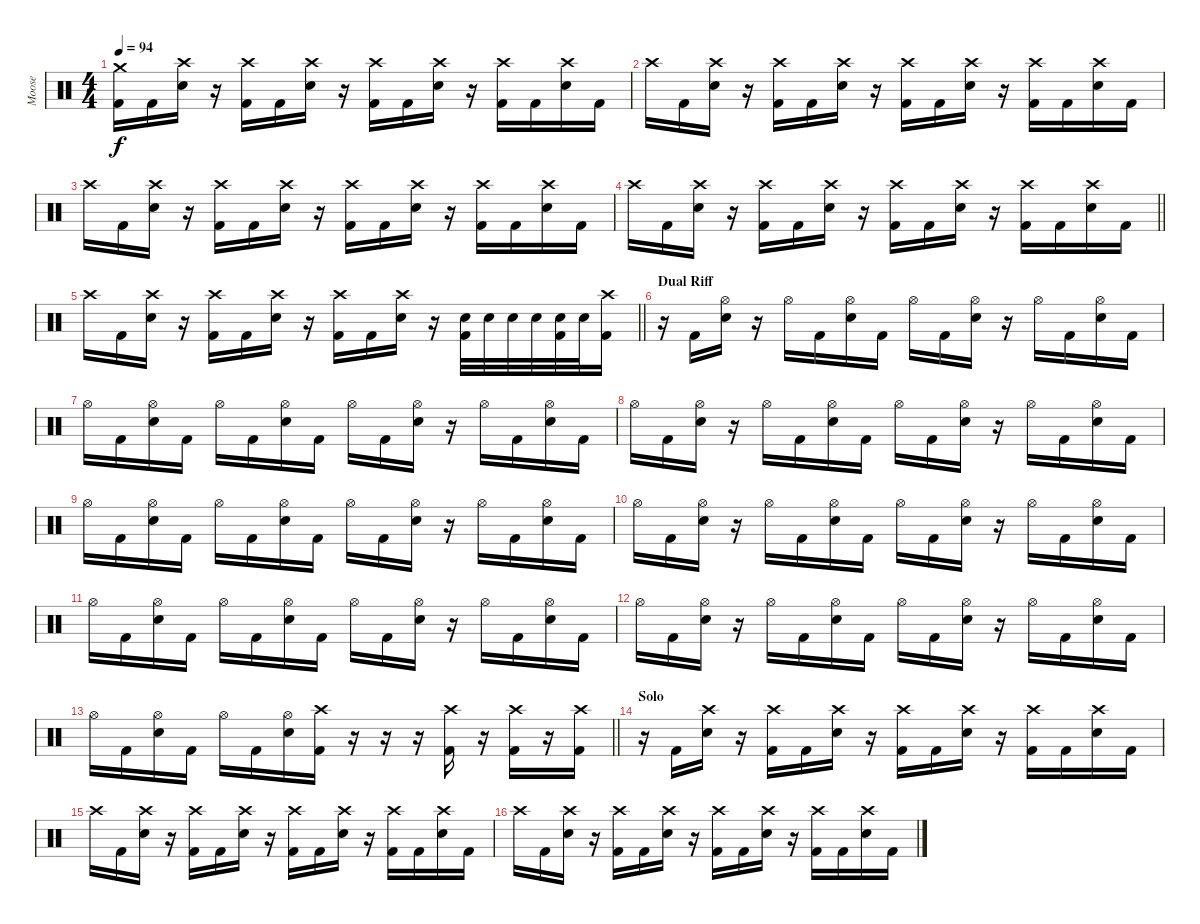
\track ("Moose" "Moose") {instrument percussion}
\staff {score}
\articulation defaults
\ts (4 4)
\tempo 94
\clef neutral
\ks c
("Crash medium (hit)" "Kick (hit) 2").16{dy f} "Kick (hit) 2".16 ("Crash high (hit)" "Electric Snare (hit)").16 r.16 ("Crash high (hit)" "Kick (hit) 2").16 "Kick (hit) 2".16 ("Crash high (hit)" "Electric Snare (hit)").16 r.16 ("Crash high (hit)" "Kick (hit) 2").16 "Kick (hit) 2".16 ("Crash high (hit)" "Electric Snare (hit)").16 r.16 ("Crash high (hit)" "Kick (hit) 2").16 "Kick (hit) 2".16 ("Crash high (hit)" "Electric Snare (hit)").16 "Kick (hit) 2".16 |
"Crash high (hit)".16 "Kick (hit) 2".16 ("Crash high (hit)" "Electric Snare (hit)").16 r.16 ("Crash high (hit)" "Kick (hit) 2").16 "Kick (hit) 2".16 ("Crash high (hit)" "Electric Snare (hit)").16 r.16 ("Crash high (hit)" "Kick (hit) 2").16 "Kick (hit) 2".16 ("Crash high (hit)" "Electric Snare (hit)").16 r.16 ("Crash high (hit)" "Kick (hit) 2").16 "Kick (hit) 2".16 ("Crash high (hit)" "Electric Snare (hit)").16 "Kick (hit) 2".16 |
"Crash high (hit)".16 "Kick (hit) 2".16 ("Crash high (hit)" "Electric Snare (hit)").16 r.16 ("Crash high (hit)" "Kick (hit) 2").16 "Kick (hit) 2".16 ("Crash high (hit)" "Electric Snare (hit)").16 r.16 ("Crash high (hit)" "Kick (hit) 2").16 "Kick (hit) 2".16 ("Crash high (hit)" "Electric Snare (hit)").16 r.16 ("Crash high (hit)" "Kick (hit) 2").16 "Kick (hit) 2".16 ("Crash high (hit)" "Electric Snare (hit)").16 "Kick (hit) 2".16 |
\barLineRight lightlight "Crash high (hit)".16 "Kick (hit) 2".16
("Crash high (hit)" "Electric Snare (hit)").16 r.16 ("Crash high (hit)" "Kick (hit) 2").16 "Kick (hit) 2".16 ("Crash high (hit)" "Electric Snare (hit)").16 r.16 ("Crash high (hit)" "Kick (hit) 2").16 "Kick (hit) 2".16 ("Crash high (hit)" "Electric Snare (hit)").16 r.16 ("Crash high (hit)" "Kick (hit) 2").16 "Kick (hit) 2".16 ("Crash high (hit)" "Electric Snare (hit)").16 "Kick (hit) 2".16 |
\barLineRight lightlight "Crash high (hit)".16 "Kick (hit) 2".16
("Crash high (hit)" "Electric Snare (hit)").16 r.16 ("Crash high (hit)" "Kick (hit) 2").16 "Kick (hit) 2".16 ("Crash high (hit)" "Electric Snare (hit)").16 r.16 ("Crash high (hit)" "Kick (hit) 2").16 "Kick (hit) 2".16 ("Crash high (hit)" "Electric Snare (hit)").16 r.16 ("Electric Snare (hit)" "Kick (hit) 2").32 "Electric Snare (hit)".32 "Electric Snare (hit)".32 "Electric Snare (hit)".32 ("Electric Snare (hit)" "Kick (hit) 2").32 "Electric Snare (hit)".32 ("Crash high (hit)" "Kick (hit) 2").16 |
\section ("" "Dual Riff")
r.16 "Kick (hit) 2".16 ("Hi-Hat (open)" "Electric Snare (hit)").16 r.16 "Hi-Hat (open)".16 "Kick (hit) 2".16 ("Hi-Hat (open)" "Electric Snare (hit)").16 "Kick (hit) 2".16 "Hi-Hat (open)".16 "Kick (hit) 2".16 ("Hi-Hat (open)" "Electric Snare (hit)").16 r.16 "Hi-Hat (open)".16 "Kick (hit) 2".16 ("Hi-Hat (open)" "Electric Snare (hit)").16 "Kick (hit) 2".16 |
"Hi-Hat (open)".16 "Kick (hit) 2".16 ("Hi-Hat (open)" "Electric Snare (hit)").16 "Kick (hit) 2".16 "Hi-Hat (open)".16 "Kick (hit) 2".16 ("Hi-Hat (open)" "Electric Snare (hit)").16 "Kick (hit) 2".16 "Hi-Hat (open)".16 "Kick (hit) 2".16 ("Hi-Hat (open)" "Electric Snare (hit)").16 r.16 "Hi-Hat (open)".16 "Kick (hit) 2".16 ("Hi-Hat (open)" "Electric Snare (hit)").16 "Kick (hit) 2".16 |
"Hi-Hat (open)".16 "Kick (hit) 2".16 ("Hi-Hat (open)" "Electric Snare (hit)").16 r.16 "Hi-Hat (open)".16 "Kick (hit) 2".16 ("Hi-Hat (open)" "Electric Snare (hit)").16 "Kick (hit) 2".16 "Hi-Hat (open)".16 "Kick (hit) 2".16 ("Hi-Hat (open)" "Electric Snare (hit)").16 r.16 "Hi-Hat (open)".16 "Kick (hit) 2".16 ("Hi-Hat (open)" "Electric Snare (hit)").16 "Kick (hit) 2".16 |
"Hi-Hat (open)".16 "Kick (hit) 2".16 ("Hi-Hat (open)" "Electric Snare (hit)").16 "Kick (hit) 2".16 "Hi-Hat (open)".16 "Kick (hit) 2".16 ("Hi-Hat (open)" "Electric Snare (hit)").16 "Kick (hit) 2".16 "Hi-Hat (open)".16 "Kick (hit) 2".16 ("Hi-Hat (open)" "Electric Snare (hit)").16 r.16 "Hi-Hat (open)".16 "Kick (hit) 2".16 ("Hi-Hat (open)" "Electric Snare (hit)").16 "Kick (hit) 2".16 |
"Hi-Hat (open)".16 "Kick (hit) 2".16 ("Hi-Hat (open)" "Electric Snare (hit)").16 r.16 "Hi-Hat (open)".16 "Kick (hit) 2".16 ("Hi-Hat (open)" "Electric Snare (hit)").16 "Kick (hit) 2".16 "Hi-Hat (open)".16 "Kick (hit) 2".16 ("Hi-Hat (open)" "Electric Snare (hit)").16 r.16 "Hi-Hat (open)".16 "Kick (hit) 2".16 ("Hi-Hat (open)" "Electric Snare (hit)").16 "Kick (hit) 2".16 |
"Hi-Hat (open)".16 "Kick (hit) 2".16 ("Hi-Hat (open)" "Electric Snare (hit)").16 "Kick (hit) 2".16 "Hi-Hat (open)".16 "Kick (hit) 2".16 ("Hi-Hat (open)" "Electric Snare (hit)").16 "Kick (hit) 2".16 "Hi-Hat (open)".16 "Kick (hit) 2".16 ("Hi-Hat (open)" "Electric Snare (hit)").16 r.16 "Hi-Hat (open)".16 "Kick (hit) 2".16 ("Hi-Hat (open)" "Electric Snare (hit)").16 "Kick (hit) 2".16 |
"Hi-Hat (open)".16 "Kick (hit) 2".16 ("Hi-Hat (open)" "Electric Snare (hit)").16 r.16 "Hi-Hat (open)".16 "Kick (hit) 2".16 ("Hi-Hat (open)" "Electric Snare (hit)").16 "Kick (hit) 2".16 "Hi-Hat (open)".16 "Kick (hit) 2".16 ("Hi-Hat (open)" "Electric Snare (hit)").16 r.16 "Hi-Hat (open)".16 "Kick (hit) 2".16 ("Hi-Hat (open)" "Electric Snare (hit)").16 "Kick (hit) 2".16 |
\barLineRight lightlight "Hi-Hat (open)".16 "Kick (hit) 2".16
("Hi-Hat (open)" "Electric Snare (hit)").16 "Kick (hit) 2".16 "Hi-Hat (open)".16 "Kick (hit) 2".16 ("Hi-Hat (open)" "Electric Snare (hit)").16 ("Crash high (hit)" "Kick (hit) 2").16 r.16 r.16 r.16 ("Crash high (hit)" "Kick (hit) 2").16 r.16 ("Crash high (hit)" "Kick (hit) 2").16 r.16 ("Crash high (hit)" "Kick (hit) 2").16 |
\section ("" "Solo")
r.16 "Kick (hit) 2".16 ("Crash high (hit)" "Electric Snare (hit)").16 r.16 ("Crash high (hit)" "Kick (hit) 2").16 "Kick (hit) 2".16 ("Crash high (hit)" "Electric Snare (hit)").16 r.16 ("Crash high (hit)" "Kick (hit) 2").16 "Kick (hit) 2".16 ("Crash high (hit)" "Electric Snare (hit)").16 r.16 ("Crash high (hit)" "Kick (hit) 2").16 "Kick (hit) 2".16 ("Crash high (hit)" "Electric Snare (hit)").16 "Kick (hit) 2".16 |
"Crash high (hit)".16 "Kick (hit) 2".16 ("Crash high (hit)" "Electric Snare (hit)").16 r.16 ("Crash high (hit)" "Kick (hit) 2").16 "Kick (hit) 2".16 ("Crash high (hit)" "Electric Snare (hit)").16 r.16 ("Crash high (hit)" "Kick (hit) 2").16 "Kick (hit) 2".16 ("Crash high (hit)" "Electric Snare (hit)").16 r.16 ("Crash high (hit)" "Kick (hit) 2").16 "Kick (hit) 2".16 ("Crash high (hit)" "Electric Snare (hit)").16 "Kick (hit) 2".16 |
"Crash high (hit)".16 "Kick (hit) 2".16 ("Crash high (hit)" "Electric Snare (hit)").16 r.16 ("Crash high (hit)" "Kick (hit) 2").16 "Kick (hit) 2".16 ("Crash high (hit)" "Electric Snare (hit)").16 r.16 ("Crash high (hit)" "Kick (hit) 2").16 "Kick (hit) 2".16 ("Crash high (hit)" "Electric Snare (hit)").16 r.16 ("Crash high (hit)" "Kick (hit) 2").16 "Kick (hit) 2".16 ("Crash high (hit)" "Electric Snare (hit)").16 "Kick (hit) 2".16
